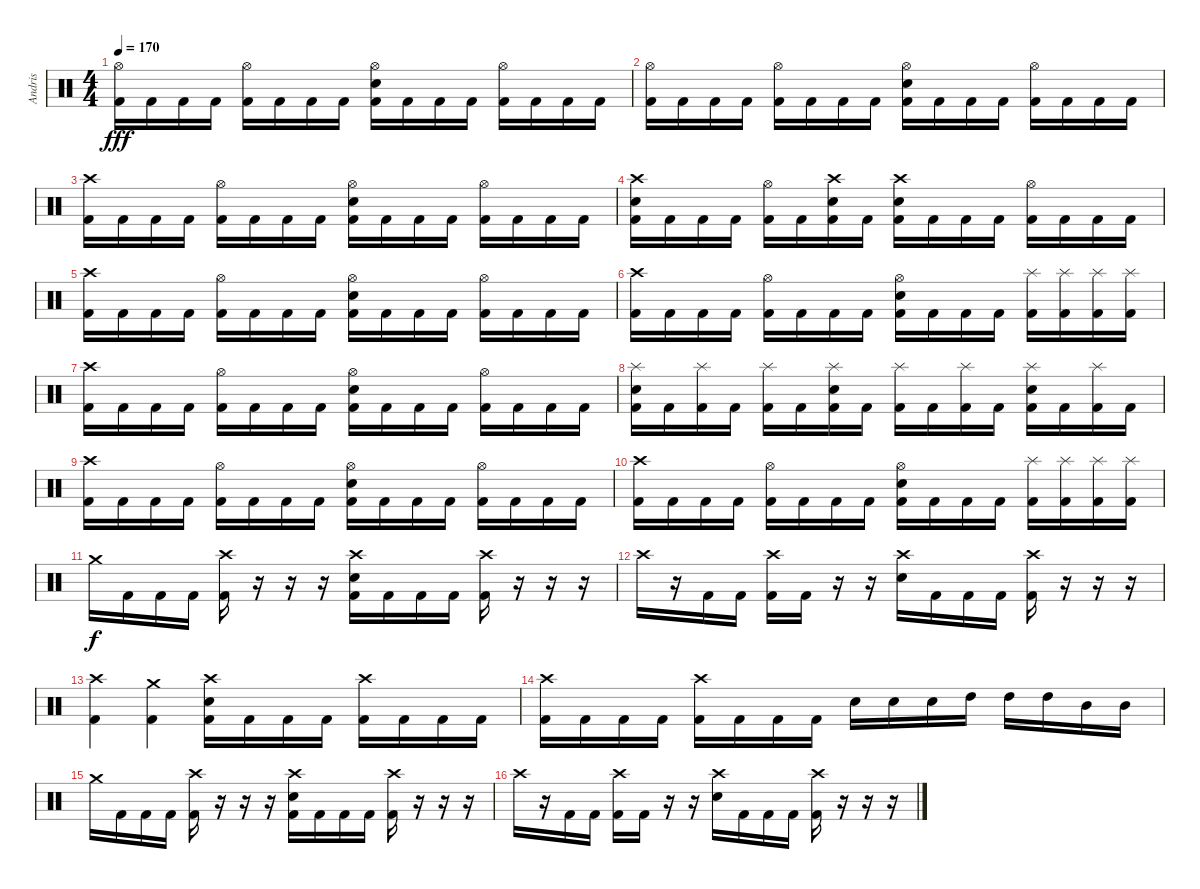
\track ("Andris" "Andris") {instrument percussion}
\staff {score}
\articulation defaults
\ts (4 4)
\tempo 170
\clef neutral
\ks c
("Hi-Hat (open)" "Kick (hit) 2").16{dy fff} "Kick (hit) 2".16 "Kick (hit) 2".16 "Kick (hit) 2".16 ("Hi-Hat (open)" "Kick (hit) 2").16 "Kick (hit) 2".16 "Kick (hit) 2".16 "Kick (hit) 2".16 ("Hi-Hat (open)" "Electric Snare (hit)" "Kick (hit) 2").16 "Kick (hit) 2".16 "Kick (hit) 2".16 "Kick (hit) 2".16 ("Hi-Hat (open)" "Kick (hit) 2").16 "Kick (hit) 2".16 "Kick (hit) 2".16 "Kick (hit) 2".16 |
("Hi-Hat (open)" "Kick (hit) 2").16 "Kick (hit) 2".16 "Kick (hit) 2".16 "Kick (hit) 2".16 ("Hi-Hat (open)" "Kick (hit) 2").16 "Kick (hit) 2".16 "Kick (hit) 2".16 "Kick (hit) 2".16 ("Hi-Hat (open)" "Electric Snare (hit)" "Kick (hit) 2").16 "Kick (hit) 2".16 "Kick (hit) 2".16 "Kick (hit) 2".16 ("Hi-Hat (open)" "Kick (hit) 2").16 "Kick (hit) 2".16 "Kick (hit) 2".16 "Kick (hit) 2".16 |
("Kick (hit) 2" "Crash high (hit)").16 "Kick (hit) 2".16 "Kick (hit) 2".16 "Kick (hit) 2".16 ("Hi-Hat (open)" "Kick (hit) 2").16 "Kick (hit) 2".16 "Kick (hit) 2".16 "Kick (hit) 2".16 ("Hi-Hat (open)" "Electric Snare (hit)" "Kick (hit) 2").16 "Kick (hit) 2".16 "Kick (hit) 2".16 "Kick (hit) 2".16 ("Hi-Hat (open)" "Kick (hit) 2").16 "Kick (hit) 2".16 "Kick (hit) 2".16 "Kick (hit) 2".16 |
("Crash high (hit)" "Kick (hit) 2" "Electric Snare (hit)").16 "Kick (hit) 2".16 "Kick (hit) 2".16 "Kick (hit) 2".16 ("Hi-Hat (open)" "Kick (hit) 2").16 "Kick (hit) 2".16 ("Crash high (hit)" "Kick (hit) 2" "Electric Snare (hit)").16 "Kick (hit) 2".16 ("Crash high (hit)" "Kick (hit) 2" "Electric Snare (hit)").16 "Kick (hit) 2".16 "Kick (hit) 2".16 "Kick (hit) 2".16 ("Hi-Hat (open)" "Kick (hit) 2").16 "Kick (hit) 2".16 "Kick (hit) 2".16 "Kick (hit) 2".16 |
("Kick (hit) 2" "Crash high (hit)").16 "Kick (hit) 2".16 "Kick (hit) 2".16 "Kick (hit) 2".16 ("Hi-Hat (open)" "Kick (hit) 2").16 "Kick (hit) 2".16 "Kick (hit) 2".16 "Kick (hit) 2".16 ("Hi-Hat (open)" "Electric Snare (hit)" "Kick (hit) 2").16 "Kick (hit) 2".16 "Kick (hit) 2".16 "Kick (hit) 2".16 ("Hi-Hat (open)" "Kick (hit) 2").16 "Kick (hit) 2".16 "Kick (hit) 2".16 "Kick (hit) 2".16 |
("Kick (hit) 2" "Crash high (hit)").16 "Kick (hit) 2".16 "Kick (hit) 2".16 "Kick (hit) 2".16 ("Hi-Hat (open)" "Kick (hit) 2").16 "Kick (hit) 2".16 "Kick (hit) 2".16 "Kick (hit) 2".16 ("Hi-Hat (open)" "Electric Snare (hit)" "Kick (hit) 2").16 "Kick (hit) 2".16 "Kick (hit) 2".16 "Kick (hit) 2".16 ("Splash (hit)" "Kick (hit) 2").16 ("Splash (hit)" "Kick (hit) 2").16 ("Splash (hit)" "Kick (hit) 2").16 ("Splash (hit)" "Kick (hit) 2").16 |
("Kick (hit) 2" "Crash high (hit)").16 "Kick (hit) 2".16 "Kick (hit) 2".16 "Kick (hit) 2".16 ("Hi-Hat (open)" "Kick (hit) 2").16 "Kick (hit) 2".16 "Kick (hit) 2".16 "Kick (hit) 2".16 ("Hi-Hat (open)" "Electric Snare (hit)" "Kick (hit) 2").16 "Kick (hit) 2".16 "Kick (hit) 2".16 "Kick (hit) 2".16 ("Hi-Hat (open)" "Kick (hit) 2").16 "Kick (hit) 2".16 "Kick (hit) 2".16 "Kick (hit) 2".16 |
("Splash (hit)" "Electric Snare (hit)" "Kick (hit) 2").16 "Kick (hit) 2".16 ("Splash (hit)" "Kick (hit) 2").16 "Kick (hit) 2".16 ("Splash (hit)" "Kick (hit) 2").16 "Kick (hit) 2".16 ("Splash (hit)" "Electric Snare (hit)" "Kick (hit) 2").16 "Kick (hit) 2".16 ("Splash (hit)" "Kick (hit) 2").16 "Kick (hit) 2".16 ("Splash (hit)" "Kick (hit) 2").16 "Kick (hit) 2".16 ("Splash (hit)" "Electric Snare (hit)" "Kick (hit) 2").16 "Kick (hit) 2".16 ("Splash (hit)" "Kick (hit) 2").16 "Kick (hit) 2".16 |
("Kick (hit) 2" "Crash high (hit)").16 "Kick (hit) 2".16 "Kick (hit) 2".16 "Kick (hit) 2".16 ("Hi-Hat (open)" "Kick (hit) 2").16 "Kick (hit) 2".16 "Kick (hit) 2".16 "Kick (hit) 2".16 ("Hi-Hat (open)" "Electric Snare (hit)" "Kick (hit) 2").16 "Kick (hit) 2".16 "Kick (hit) 2".16 "Kick (hit) 2".16 ("Hi-Hat (open)" "Kick (hit) 2").16 "Kick (hit) 2".16 "Kick (hit) 2".16 "Kick (hit) 2".16 |
("Kick (hit) 2" "Crash high (hit)").16 "Kick (hit) 2".16 "Kick (hit) 2".16 "Kick (hit) 2".16 ("Hi-Hat (open)" "Kick (hit) 2").16 "Kick (hit) 2".16 "Kick (hit) 2".16 "Kick (hit) 2".16 ("Hi-Hat (open)" "Electric Snare (hit)" "Kick (hit) 2").16 "Kick (hit) 2".16 "Kick (hit) 2".16 "Kick (hit) 2".16 ("Splash (hit)" "Kick (hit) 2").16 ("Splash (hit)" "Kick (hit) 2").16 ("Splash (hit)" "Kick (hit) 2").16 ("Splash (hit)" "Kick (hit) 2").16 |
"Crash medium (hit)".16{dy f} "Kick (hit) 2".16 "Kick (hit) 2".16 "Kick (hit) 2".16 ("Crash high (hit)" "Kick (hit) 2").16 r.16 r.16 r.16 ("Electric Snare (hit)" "Crash high (hit)" "Kick (hit) 2").16 "Kick (hit) 2".16 "Kick (hit) 2".16 "Kick (hit) 2".16 ("Crash high (hit)" "Kick (hit) 2").16 r.16 r.16 r.16 |
"Crash high (hit)".16 r.16 "Kick (hit) 2".16 "Kick (hit) 2".16 ("Crash high (hit)" "Kick (hit) 2").16 "Kick (hit) 2".16 r.16 r.16 ("Crash high (hit)" "Electric Snare (hit)").16 "Kick (hit) 2".16 "Kick (hit) 2".16 "Kick (hit) 2".16 ("Crash high (hit)" "Kick (hit) 2").16 r.16 r.16 r.16 |
("Kick (hit) 2" "Crash high (hit)").4 ("Crash medium (hit)" "Kick (hit) 2").4 ("Crash high (hit)" "Kick (hit) 2" "Electric Snare (hit)").16 "Kick (hit) 2".16 "Kick (hit) 2".16 "Kick (hit) 2".16 ("Crash high (hit)" "Kick (hit) 2").16 "Kick (hit) 2".16 "Kick (hit) 2".16 "Kick (hit) 2".16 |
("Kick (hit) 2" "Crash high (hit)").16 "Kick (hit) 2".16 "Kick (hit) 2".16 "Kick (hit) 2".16 ("Crash high (hit)" "Kick (hit) 2").16 "Kick (hit) 2".16 "Kick (hit) 2".16 "Kick (hit) 2".16 "Electric Snare (hit)".16 "Electric Snare (hit)".16 "Electric Snare (hit)".16 "High Tom (hit)".16 "High Tom (hit)".16 "High Tom (hit)".16 "Mid Tom (hit)".16 "Mid Tom (hit)".16 |
"Crash medium (hit)".16 "Kick (hit) 2".16 "Kick (hit) 2".16 "Kick (hit) 2".16 ("Crash high (hit)" "Kick (hit) 2").16 r.16 r.16 r.16 ("Crash high (hit)" "Electric Snare (hit)" "Kick (hit) 2").16 "Kick (hit) 2".16 "Kick (hit) 2".16 "Kick (hit) 2".16 ("Crash high (hit)" "Kick (hit) 2").16 r.16 r.16 r.16 |
"Crash high (hit)".16 r.16 "Kick (hit) 2".16 "Kick (hit) 2".16 ("Crash high (hit)" "Kick (hit) 2").16 "Kick (hit) 2".16 r.16 r.16 ("Crash high (hit)" "Electric Snare (hit)").16 "Kick (hit) 2".16 "Kick (hit) 2".16 "Kick (hit) 2".16 ("Crash high (hit)" "Kick (hit) 2").16 r.16 r.16 r.16
